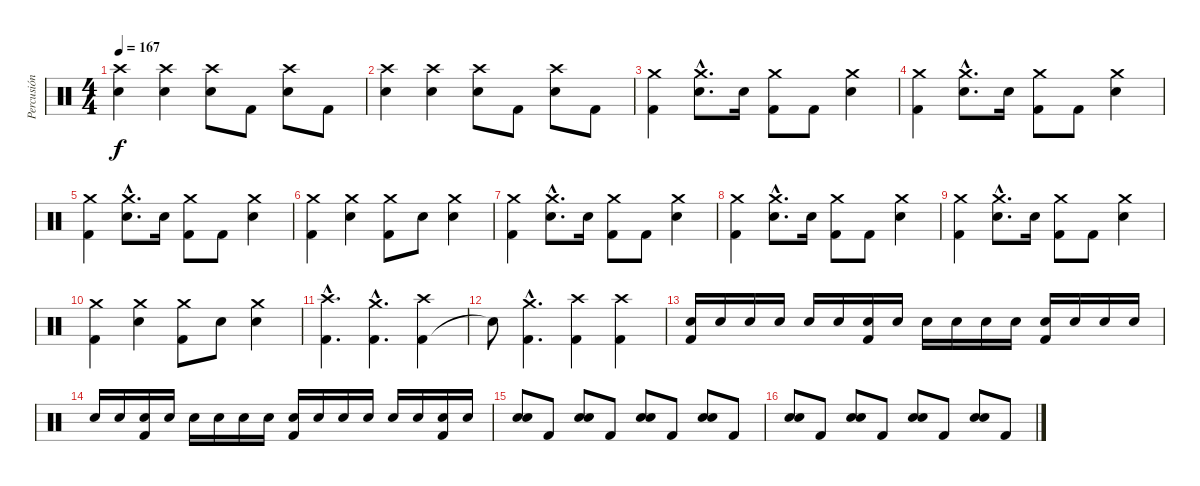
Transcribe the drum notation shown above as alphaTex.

\track ("Percusión" "Percusión") {instrument percussion}
\staff {score}
\articulation defaults
\ts (4 4)
\tempo 167
\clef neutral
\ks c
("Crash high (hit)" "Electric Snare (hit)").4{dy f} ("Crash high (hit)" "Electric Snare (hit)").4 ("Crash high (hit)" "Electric Snare (hit)").8 "Kick (hit) 2".8 ("Crash high (hit)" "Electric Snare (hit)").8 "Kick (hit) 2".8 |
("Crash high (hit)" "Electric Snare (hit)").4 ("Crash high (hit)" "Electric Snare (hit)").4 ("Crash high (hit)" "Electric Snare (hit)").8 "Kick (hit) 2".8 ("Crash high (hit)" "Electric Snare (hit)").8 "Kick (hit) 2".8 |
("Crash medium (hit)" "Kick (hit) 2").4 ("Crash medium (hit)"{hac} "Electric Snare (hit)"{hac}).8{d} "Electric Snare (hit)".16 ("Crash medium (hit)" "Kick (hit) 2").8 "Kick (hit) 2".8 ("Crash medium (hit)" "Electric Snare (hit)").4 |
("Crash medium (hit)" "Kick (hit) 2").4 ("Crash medium (hit)"{hac} "Electric Snare (hit)"{hac}).8{d} "Electric Snare (hit)".16 ("Crash medium (hit)" "Kick (hit) 2").8 "Kick (hit) 2".8 ("Crash medium (hit)" "Electric Snare (hit)").4 |
("Crash medium (hit)" "Kick (hit) 2").4 ("Crash medium (hit)"{hac} "Electric Snare (hit)"{hac}).8{d} "Electric Snare (hit)".16 ("Crash medium (hit)" "Kick (hit) 2").8 "Kick (hit) 2".8 ("Crash medium (hit)" "Electric Snare (hit)").4 |
("Crash medium (hit)" "Kick (hit) 2").4 ("Crash medium (hit)" "Electric Snare (hit)").4 ("Crash medium (hit)" "Kick (hit) 2").8 "Electric Snare (hit)".8 ("Crash medium (hit)" "Electric Snare (hit)").4 |
("Crash medium (hit)" "Kick (hit) 2").4 ("Crash medium (hit)"{hac} "Electric Snare (hit)"{hac}).8{d} "Electric Snare (hit)".16 ("Crash medium (hit)" "Kick (hit) 2").8 "Kick (hit) 2".8 ("Crash medium (hit)" "Electric Snare (hit)").4 |
("Crash medium (hit)" "Kick (hit) 2").4 ("Crash medium (hit)"{hac} "Electric Snare (hit)"{hac}).8{d} "Electric Snare (hit)".16 ("Crash medium (hit)" "Kick (hit) 2").8 "Kick (hit) 2".8 ("Crash medium (hit)" "Electric Snare (hit)").4 |
("Crash medium (hit)" "Kick (hit) 2").4 ("Crash medium (hit)"{hac} "Electric Snare (hit)"{hac}).8{d} "Electric Snare (hit)".16 ("Crash medium (hit)" "Kick (hit) 2").8 "Kick (hit) 2".8 ("Crash medium (hit)" "Electric Snare (hit)").4 |
("Crash medium (hit)" "Kick (hit) 2").4 ("Crash medium (hit)" "Electric Snare (hit)").4 ("Crash medium (hit)" "Kick (hit) 2").8 "Electric Snare (hit)".8 ("Crash medium (hit)" "Electric Snare (hit)").4 |
("Kick (hit) 2"{hac} "Crash high (hit)"{hac}).4{d} ("Kick (hit) 2"{hac} "Crash medium (hit)"{hac}).4{d} ("Kick (hit) 2" "Crash high (hit)").4 |
"Snare (hit)"{t}.8 ("Kick (hit) 2"{hac} "Crash medium (hit)"{hac}).4{d} ("Kick (hit) 2" "Crash high (hit)").4 ("Kick (hit) 2" "Crash high (hit)").4 |
("Electric Snare (hit)" "Kick (hit) 2").16 "Electric Snare (hit)".16 "Electric Snare (hit)".16 "Electric Snare (hit)".16 "Electric Snare (hit)".16 "Electric Snare (hit)".16 ("Electric Snare (hit)" "Kick (hit) 2").16 "Electric Snare (hit)".16 "Electric Snare (hit)".16 "Electric Snare (hit)".16 "Electric Snare (hit)".16 "Electric Snare (hit)".16 ("Electric Snare (hit)" "Kick (hit) 2").16 "Electric Snare (hit)".16 "Electric Snare (hit)".16 "Electric Snare (hit)".16 |
"Electric Snare (hit)".16 "Electric Snare (hit)".16 ("Electric Snare (hit)" "Kick (hit) 2").16 "Electric Snare (hit)".16 "Electric Snare (hit)".16 "Electric Snare (hit)".16 "Electric Snare (hit)".16 "Electric Snare (hit)".16 ("Electric Snare (hit)" "Kick (hit) 2").16 "Electric Snare (hit)".16 "Electric Snare (hit)".16 "Electric Snare (hit)".16 "Electric Snare (hit)".16 "Electric Snare (hit)".16 ("Electric Snare (hit)" "Kick (hit) 2").16 "Electric Snare (hit)".16 |
("Electric Snare (hit)" "Electric Snare (hit)").8 "Kick (hit) 2".8 ("Electric Snare (hit)" "Electric Snare (hit)").8 "Kick (hit) 2".8 ("Electric Snare (hit)" "Electric Snare (hit)").8 "Kick (hit) 2".8 ("Electric Snare (hit)" "Electric Snare (hit)").8 "Kick (hit) 2".8 |
("Electric Snare (hit)" "Electric Snare (hit)").8 "Kick (hit) 2".8 ("Electric Snare (hit)" "Electric Snare (hit)").8 "Kick (hit) 2".8 ("Electric Snare (hit)" "Electric Snare (hit)").8 "Kick (hit) 2".8 ("Electric Snare (hit)" "Electric Snare (hit)").8 "Kick (hit) 2".8
